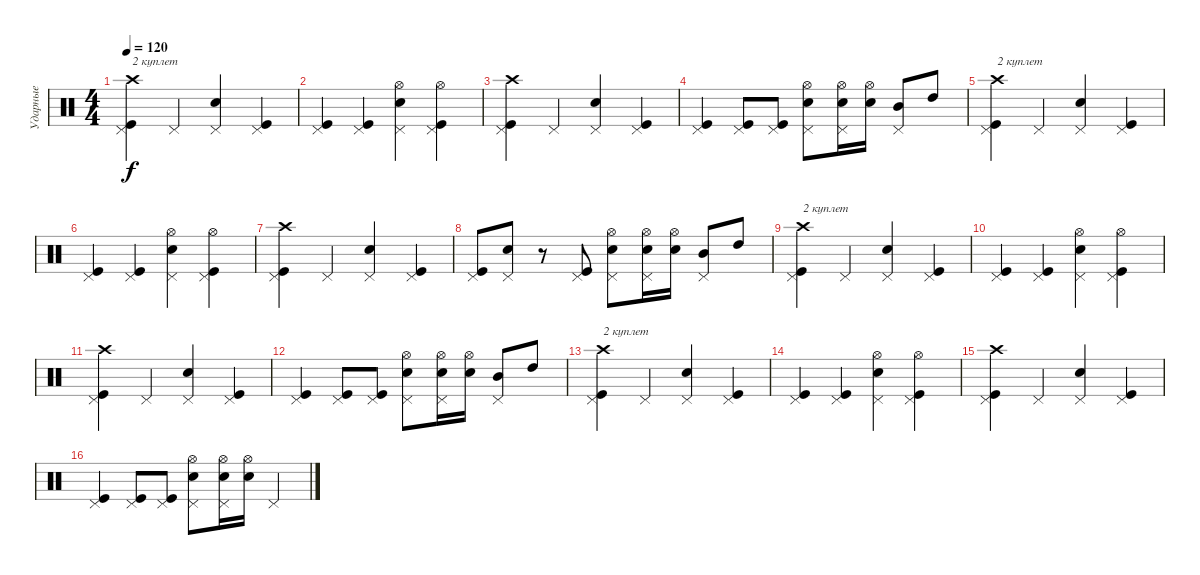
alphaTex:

\track ("Ударные" "Ударные") {instrument percussion}
\staff {score}
\articulation defaults
\ts (4 4)
\tempo 120
\clef neutral
\ks c
("Crash high (hit)" "Kick (hit)" "Pedal Hi-Hat (hit)").4{txt "2 куплет" dy f} "Pedal Hi-Hat (hit)".4 ("Snare (hit) 2" "Pedal Hi-Hat (hit)").4 ("Kick (hit)" "Pedal Hi-Hat (hit)").4 |
("Kick (hit)" "Pedal Hi-Hat (hit)").4 ("Kick (hit)" "Pedal Hi-Hat (hit)").4 ("Hi-Hat (open)" "Snare (hit) 2" "Pedal Hi-Hat (hit)").4 ("Hi-Hat (open)" "Kick (hit)" "Pedal Hi-Hat (hit)").4 |
("Crash high (hit)" "Kick (hit)" "Pedal Hi-Hat (hit)").4 "Pedal Hi-Hat (hit)".4 ("Snare (hit) 2" "Pedal Hi-Hat (hit)").4 ("Kick (hit)" "Pedal Hi-Hat (hit)").4 |
("Kick (hit)" "Pedal Hi-Hat (hit)").4 ("Kick (hit)" "Pedal Hi-Hat (hit)").8 ("Kick (hit)" "Pedal Hi-Hat (hit)").8 ("Hi-Hat (open)" "Snare (hit) 2" "Pedal Hi-Hat (hit)").8 ("Hi-Hat (open)" "Snare (hit) 2" "Pedal Hi-Hat (hit)").16 ("Hi-Hat (open)" "Snare (hit) 2").16 ("Mid Tom (hit)" "Pedal Hi-Hat (hit)").8 "High Tom (hit)".8 |
("Crash high (hit)" "Kick (hit)" "Pedal Hi-Hat (hit)").4{txt "2 куплет"} "Pedal Hi-Hat (hit)".4 ("Snare (hit) 2" "Pedal Hi-Hat (hit)").4 ("Kick (hit)" "Pedal Hi-Hat (hit)").4 |
("Kick (hit)" "Pedal Hi-Hat (hit)").4 ("Kick (hit)" "Pedal Hi-Hat (hit)").4 ("Hi-Hat (open)" "Snare (hit) 2" "Pedal Hi-Hat (hit)").4 ("Hi-Hat (open)" "Kick (hit)" "Pedal Hi-Hat (hit)").4 |
("Crash high (hit)" "Kick (hit)" "Pedal Hi-Hat (hit)").4 "Pedal Hi-Hat (hit)".4 ("Snare (hit) 2" "Pedal Hi-Hat (hit)").4 ("Kick (hit)" "Pedal Hi-Hat (hit)").4 |
("Kick (hit)" "Pedal Hi-Hat (hit)").8 ("Snare (hit) 2" "Pedal Hi-Hat (hit)").8 r.8 ("Kick (hit)" "Pedal Hi-Hat (hit)").8 ("Hi-Hat (open)" "Snare (hit) 2" "Pedal Hi-Hat (hit)").8 ("Hi-Hat (open)" "Snare (hit) 2" "Pedal Hi-Hat (hit)").16 ("Hi-Hat (open)" "Snare (hit) 2").16 ("Mid Tom (hit)" "Pedal Hi-Hat (hit)").8 "High Tom (hit)".8 |
("Crash high (hit)" "Kick (hit)" "Pedal Hi-Hat (hit)").4{txt "2 куплет"} "Pedal Hi-Hat (hit)".4 ("Snare (hit) 2" "Pedal Hi-Hat (hit)").4 ("Kick (hit)" "Pedal Hi-Hat (hit)").4 |
("Kick (hit)" "Pedal Hi-Hat (hit)").4 ("Kick (hit)" "Pedal Hi-Hat (hit)").4 ("Hi-Hat (open)" "Snare (hit) 2" "Pedal Hi-Hat (hit)").4 ("Hi-Hat (open)" "Kick (hit)" "Pedal Hi-Hat (hit)").4 |
("Crash high (hit)" "Kick (hit)" "Pedal Hi-Hat (hit)").4 "Pedal Hi-Hat (hit)".4 ("Snare (hit) 2" "Pedal Hi-Hat (hit)").4 ("Kick (hit)" "Pedal Hi-Hat (hit)").4 |
("Kick (hit)" "Pedal Hi-Hat (hit)").4 ("Kick (hit)" "Pedal Hi-Hat (hit)").8 ("Kick (hit)" "Pedal Hi-Hat (hit)").8 ("Hi-Hat (open)" "Snare (hit) 2" "Pedal Hi-Hat (hit)").8 ("Hi-Hat (open)" "Snare (hit) 2" "Pedal Hi-Hat (hit)").16 ("Hi-Hat (open)" "Snare (hit) 2").16 ("Mid Tom (hit)" "Pedal Hi-Hat (hit)").8 "High Tom (hit)".8 |
("Crash high (hit)" "Kick (hit)" "Pedal Hi-Hat (hit)").4{txt "2 куплет"} "Pedal Hi-Hat (hit)".4 ("Snare (hit) 2" "Pedal Hi-Hat (hit)").4 ("Kick (hit)" "Pedal Hi-Hat (hit)").4 |
("Kick (hit)" "Pedal Hi-Hat (hit)").4 ("Kick (hit)" "Pedal Hi-Hat (hit)").4 ("Hi-Hat (open)" "Snare (hit) 2" "Pedal Hi-Hat (hit)").4 ("Hi-Hat (open)" "Kick (hit)" "Pedal Hi-Hat (hit)").4 |
("Crash high (hit)" "Kick (hit)" "Pedal Hi-Hat (hit)").4 "Pedal Hi-Hat (hit)".4 ("Snare (hit) 2" "Pedal Hi-Hat (hit)").4 ("Kick (hit)" "Pedal Hi-Hat (hit)").4 |
("Kick (hit)" "Pedal Hi-Hat (hit)").4 ("Kick (hit)" "Pedal Hi-Hat (hit)").8 ("Kick (hit)" "Pedal Hi-Hat (hit)").8 ("Hi-Hat (open)" "Snare (hit) 2" "Pedal Hi-Hat (hit)").8 ("Hi-Hat (open)" "Snare (hit) 2" "Pedal Hi-Hat (hit)").16 ("Hi-Hat (open)" "Snare (hit) 2").16 "Pedal Hi-Hat (hit)".4
